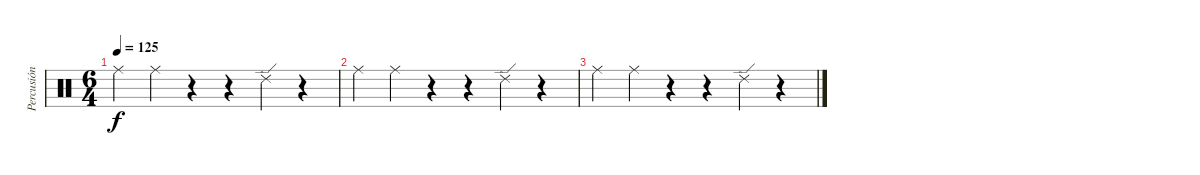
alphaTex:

\track ("Percusión" "Percusión") {instrument percussion}
\staff {score}
\articulation defaults
\ts (6 4)
\tempo 125
\clef neutral
\ks c "Ride (middle)".4{dy f volume 5 balance 10} "Ride (middle)".4
r.4 r.4 "Ride (edge) 2".4 r.4 |
"Ride (middle)".4 "Ride (middle)".4 r.4 r.4 "Ride (edge) 2".4 r.4 |
"Ride (middle)".4 "Ride (middle)".4 r.4 r.4 "Ride (edge) 2".4 r.4
